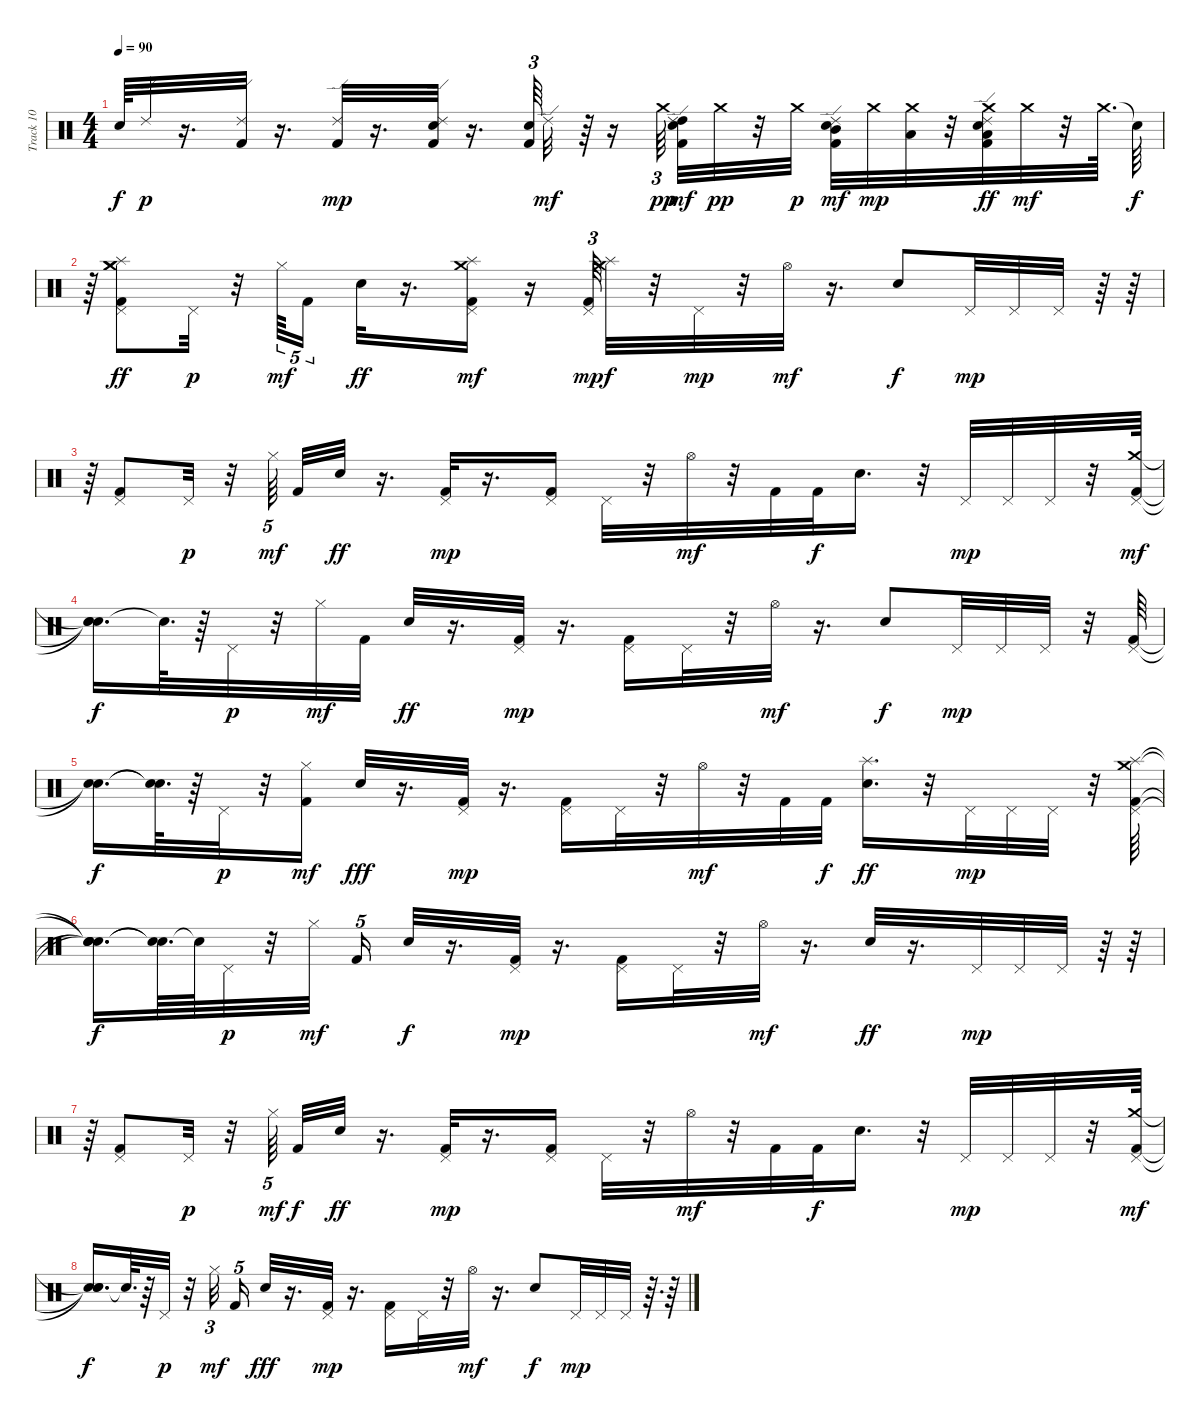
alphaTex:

\track ("Track 10" "Track 10") {instrument percussion}
\staff {score}
\articulation defaults
\ts (4 4)
\tempo 90
\clef neutral
\ks c "Snare (hit)"{t}.64{dy f} "Ride (edge) 2".32{dy p}
r.16{d} ("Kick (hit) 2" "Ride (edge) 2").32 r.16{d} ("Ride (edge) 2" "Kick (hit) 2").32{dy mp} r.16{d} ("Kick (hit) 2" "Snare (hit) 2" "Ride (edge) 2").32 r.16{d} ("Kick (hit) 2" "Snare (hit) 2").64{tu (3 2)} "Ride (edge) 2".32{dy mf} r.64 r.16 "Crash medium (hit)".64{tu (3 2) dy pp beam splitsecondary} ("High Tom (hit)" "Kick (hit) 2" "Snare (hit) 2" "Ride (edge) 2").32{dy mf} "Crash medium (hit)".32{dy pp} r.32 "Crash medium (hit)".32{dy p} ("Kick (hit) 2" "Snare (hit) 2" "Mid Tom (hit)" "Ride (edge) 2").32{dy mf} "Crash medium (hit)".32{dy mp} ("Crash medium (hit)" "Low Tom (hit)").32 r.32 ("Crash medium (hit)" "Ride (edge) 2" "Kick (hit) 2" "Snare (hit) 2" "Low Floor Tom (hit)").32{dy ff} "Crash medium (hit)".32{dy mf} r.32 "Crash medium (hit)".64{d} "Snare (hit)"{t}.64{dy f} |
r.64 ("Pedal Hi-Hat (hit)" "Kick (hit) 2" "Splash (hit)" "Crash medium (hit)" "Crash medium (hit)").8{dy ff} "Pedal Hi-Hat (hit)".32{dy p} r.32 "Hi-Hat (closed)".64{tu (5 4) dy mf} "Kick (hit) 2".16{tu (5 4)} "Snare (hit) 2".32{dy ff} r.16{d} ("Pedal Hi-Hat (hit)" "Kick (hit) 2" "Splash (hit)" "Crash medium (hit)").16{dy mf} r.16 ("Pedal Hi-Hat (hit)" "Kick (hit) 2").64{tu (3 2) dy mp} ("Crash medium (hit)" "Splash (hit)").32{dy f} r.32 "Pedal Hi-Hat (hit)".32{dy mp} r.32 "Hi-Hat (open)".32{dy mf} r.16{d} "Snare (hit) 2".8{dy f} "Pedal Hi-Hat (hit)".32{dy mp} "Pedal Hi-Hat (hit)".32 "Pedal Hi-Hat (hit)".32 r.64 r.64 |
r.64 ("Pedal Hi-Hat (hit)" "Kick (hit) 2").8 "Pedal Hi-Hat (hit)".32{dy p} r.32 "Hi-Hat (closed)".64{tu (5 4) dy mf beam splitsecondary} "Kick (hit) 2".32 "Snare (hit) 2".32{dy ff} r.16{d} ("Pedal Hi-Hat (hit)" "Kick (hit) 2").32{dy mp} r.16{d} ("Pedal Hi-Hat (hit)" "Kick (hit) 2").16 "Pedal Hi-Hat (hit)".32 r.32 "Hi-Hat (open)".32{dy mf} r.32 "Kick (hit) 2".32 "Kick (hit) 2".32{dy f} "Snare (hit) 2".16{d} r.32 "Pedal Hi-Hat (hit)".32{dy mp} "Pedal Hi-Hat (hit)".32 "Pedal Hi-Hat (hit)".32 r.32 ("Pedal Hi-Hat (hit)" "Crash medium (hit)" "Kick (hit) 2").64{dy mf} |
("Snare (hit)"{t} "Snare (hit)"{t} "Snare (hit)"{t}).16{d dy f} "Snare (hit)"{t}.64{d} r.64 "Pedal Hi-Hat (hit)".32{dy p} r.32 "Hi-Hat (closed)".32{dy mf} "Kick (hit) 2".32 "Snare (hit) 2".32{dy ff} r.16{d} ("Pedal Hi-Hat (hit)" "Kick (hit) 2").32{dy mp} r.16{d} ("Pedal Hi-Hat (hit)" "Kick (hit) 2").16 "Pedal Hi-Hat (hit)".32 r.32 "Hi-Hat (open)".32{dy mf} r.16{d} "Snare (hit) 2".8{dy f} "Pedal Hi-Hat (hit)".32{dy mp} "Pedal Hi-Hat (hit)".32 "Pedal Hi-Hat (hit)".32 r.32 ("Pedal Hi-Hat (hit)" "Kick (hit) 2").64 |
("Snare (hit)"{t} "Snare (hit)"{t}).16{d dy f} ("Snare (hit)"{t} "Snare (hit)"{t}).64{d} r.64 "Pedal Hi-Hat (hit)".32{dy p} r.32 ("Hi-Hat (closed)" "Kick (hit) 2").16{dy mf} "Snare (hit) 2".32{dy fff} r.16{d} ("Pedal Hi-Hat (hit)" "Kick (hit) 2").32{dy mp} r.16{d} ("Pedal Hi-Hat (hit)" "Kick (hit) 2").16 "Pedal Hi-Hat (hit)".32 r.32 "Hi-Hat (open)".32{dy mf} r.32 "Kick (hit) 2".32 "Kick (hit) 2".32{dy f} ("Splash (hit)" "Snare (hit) 2").16{d dy ff} r.32 "Pedal Hi-Hat (hit)".32{dy mp} "Pedal Hi-Hat (hit)".32 "Pedal Hi-Hat (hit)".32 r.32 ("Pedal Hi-Hat (hit)" "Crash medium (hit)" "Splash (hit)" "Kick (hit) 2").64 |
("Snare (hit)"{t} "Snare (hit)"{t} "Snare (hit)"{t} "Snare (hit)"{t}).16{d dy f} ("Snare (hit)"{t} "Snare (hit)"{t}).64{d} "Snare (hit)"{t}.64 "Pedal Hi-Hat (hit)".32{dy p} r.32 "Hi-Hat (closed)".32{dy mf} "Kick (hit) 2".16{tu (5 4)} "Snare (hit) 2".32{dy f} r.16{d} ("Pedal Hi-Hat (hit)" "Kick (hit) 2").32{dy mp} r.16{d} ("Pedal Hi-Hat (hit)" "Kick (hit) 2").16 "Pedal Hi-Hat (hit)".32 r.32 "Hi-Hat (open)".32{dy mf} r.16{d} "Snare (hit) 2".32{dy ff} r.16{d} "Pedal Hi-Hat (hit)".32{dy mp} "Pedal Hi-Hat (hit)".32 "Pedal Hi-Hat (hit)".32 r.64 r.64 |
r.64 ("Pedal Hi-Hat (hit)" "Kick (hit) 2").8 "Pedal Hi-Hat (hit)".32{dy p} r.32 "Hi-Hat (closed)".64{tu (5 4) dy mf beam splitsecondary} "Kick (hit) 2".32{dy f} "Snare (hit) 2".32{dy ff} r.16{d} ("Pedal Hi-Hat (hit)" "Kick (hit) 2").32{dy mp} r.16{d} ("Pedal Hi-Hat (hit)" "Kick (hit) 2").16 "Pedal Hi-Hat (hit)".32 r.32 "Hi-Hat (open)".32{dy mf} r.32 "Kick (hit) 2".32 "Kick (hit) 2".32{dy f} "Snare (hit) 2".16{d} r.32 "Pedal Hi-Hat (hit)".32{dy mp} "Pedal Hi-Hat (hit)".32 "Pedal Hi-Hat (hit)".32 r.32 ("Pedal Hi-Hat (hit)" "Crash medium (hit)" "Kick (hit) 2").64{dy mf} |
("Snare (hit)"{t} "Snare (hit)"{t} "Snare (hit)"{t}).16{d dy f} "Snare (hit)"{t}.64{d} r.64 "Pedal Hi-Hat (hit)".32{dy p} r.32 "Hi-Hat (closed)".32{tu (3 2) dy mf} "Kick (hit) 2".16{tu (5 4)} "Snare (hit) 2".32{dy fff} r.16{d} ("Pedal Hi-Hat (hit)" "Kick (hit) 2").32{dy mp} r.16{d} ("Pedal Hi-Hat (hit)" "Kick (hit) 2").16 "Pedal Hi-Hat (hit)".32 r.32 "Hi-Hat (open)".32{dy mf} r.16{d} "Snare (hit) 2".8{dy f} "Pedal Hi-Hat (hit)".32{dy mp} "Pedal Hi-Hat (hit)".32 "Pedal Hi-Hat (hit)".32 r.64{d} r.64
